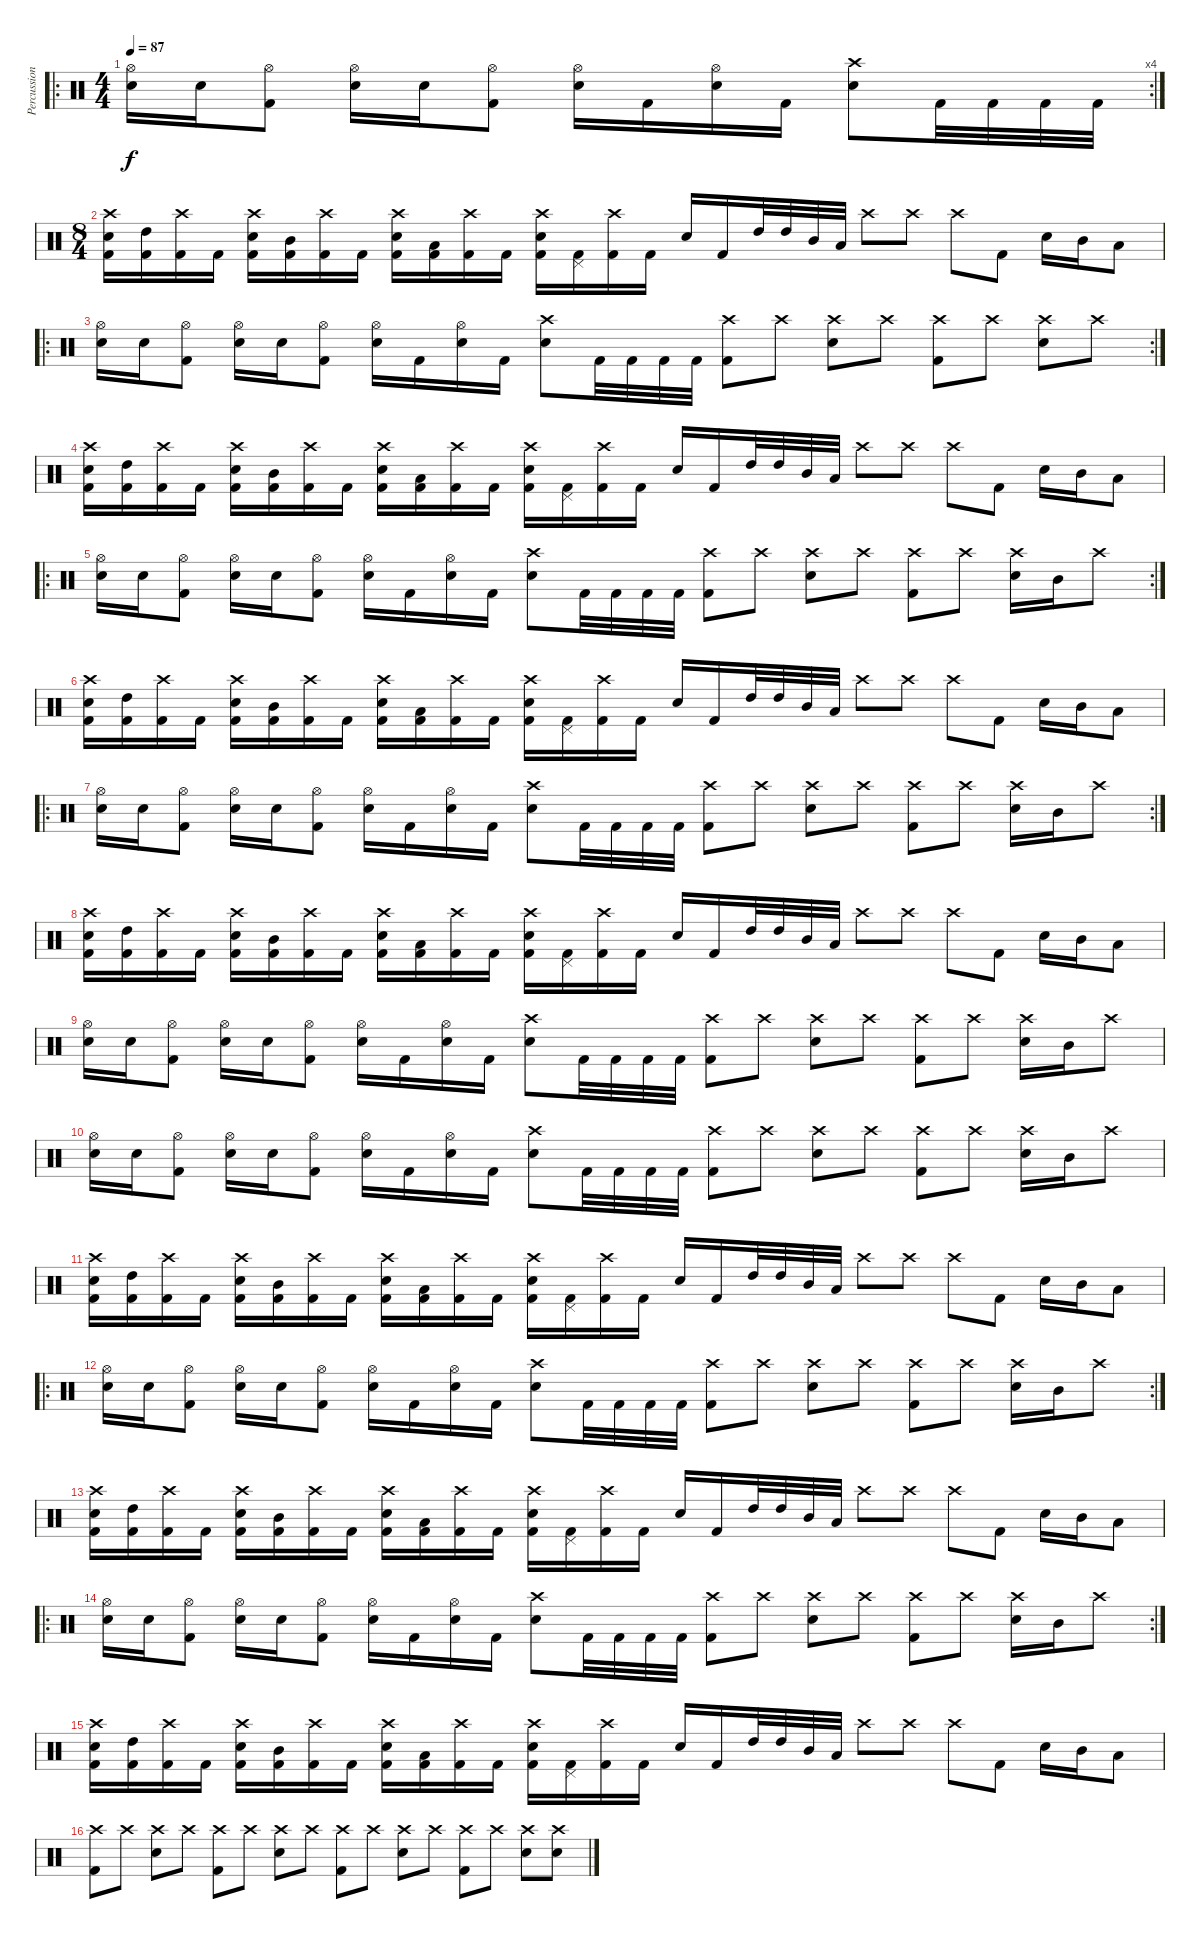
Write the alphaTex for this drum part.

\track ("Percussion" "Percussion") {instrument percussion}
\staff {score}
\articulation defaults
\ro
\rc 4
\ts (4 4)
\tempo 87
\clef neutral
\ks c
("Hi-Hat (open)" "Electric Snare (hit)").16{dy f} "Electric Snare (hit)".16 ("Hi-Hat (open)" "Kick (hit) 2").8 ("Hi-Hat (open)" "Electric Snare (hit)").16 "Electric Snare (hit)".16 ("Hi-Hat (open)" "Kick (hit) 2").8 ("Hi-Hat (open)" "Electric Snare (hit)").16 "Kick (hit) 2".16 ("Hi-Hat (open)" "Electric Snare (hit)").16 "Kick (hit) 2".16 ("Crash high (hit)" "Electric Snare (hit)").8 "Kick (hit) 2".32 "Kick (hit) 2".32 "Kick (hit) 2".32 "Kick (hit) 2".32 |
\ts (8 4)
("Crash high (hit)" "Electric Snare (hit)" "Kick (hit) 2").16 ("High Tom (hit)" "Kick (hit) 2").16 ("Crash high (hit)" "Kick (hit) 2").16 "Kick (hit) 2".16 ("Crash high (hit)" "Electric Snare (hit)" "Kick (hit) 2").16 ("Mid Tom (hit)" "Kick (hit) 2").16 ("Crash high (hit)" "Kick (hit) 2").16 "Kick (hit) 2".16 ("Crash high (hit)" "Electric Snare (hit)" "Kick (hit) 2").16 ("Low Tom (hit)" "Kick (hit) 2").16 ("Crash high (hit)" "Kick (hit) 2").16 "Kick (hit) 2".16 ("Crash high (hit)" "Electric Snare (hit)" "Kick (hit) 2").16 ("Pedal Hi-Hat (hit)" "Kick (hit) 2").16 ("Crash high (hit)" "Kick (hit) 2").16 "Kick (hit) 2".16 "Electric Snare (hit)".16 "Kick (hit) 2".16 "High Tom (hit)".32 "High Tom (hit)".32 "Mid Tom (hit)".32 "Low Tom (hit)".32 "Crash high (hit)".8 "Crash high (hit)".8 "Crash high (hit)".8 "Kick (hit) 2".8 "Electric Snare (hit)".16 "Mid Tom (hit)".16 "Low Tom (hit)".8 |
\ro
\rc 2
("Hi-Hat (open)" "Electric Snare (hit)").16 "Electric Snare (hit)".16 ("Hi-Hat (open)" "Kick (hit) 2").8 ("Hi-Hat (open)" "Electric Snare (hit)").16 "Electric Snare (hit)".16 ("Hi-Hat (open)" "Kick (hit) 2").8 ("Hi-Hat (open)" "Electric Snare (hit)").16 "Kick (hit) 2".16 ("Hi-Hat (open)" "Electric Snare (hit)").16 "Kick (hit) 2".16 ("Crash high (hit)" "Electric Snare (hit)").8 "Kick (hit) 2".32 "Kick (hit) 2".32 "Kick (hit) 2".32 "Kick (hit) 2".32 ("Crash high (hit)" "Kick (hit) 2").8 "Crash high (hit)".8 ("Crash high (hit)" "Electric Snare (hit)").8 "Crash high (hit)".8 ("Crash high (hit)" "Kick (hit) 2").8 "Crash high (hit)".8 ("Crash high (hit)" "Electric Snare (hit)").8 "Crash high (hit)".8 |
("Crash high (hit)" "Electric Snare (hit)" "Kick (hit) 2").16 ("High Tom (hit)" "Kick (hit) 2").16 ("Crash high (hit)" "Kick (hit) 2").16 "Kick (hit) 2".16 ("Crash high (hit)" "Electric Snare (hit)" "Kick (hit) 2").16 ("Mid Tom (hit)" "Kick (hit) 2").16 ("Crash high (hit)" "Kick (hit) 2").16 "Kick (hit) 2".16 ("Crash high (hit)" "Electric Snare (hit)" "Kick (hit) 2").16 ("Low Tom (hit)" "Kick (hit) 2").16 ("Crash high (hit)" "Kick (hit) 2").16 "Kick (hit) 2".16 ("Crash high (hit)" "Electric Snare (hit)" "Kick (hit) 2").16 ("Pedal Hi-Hat (hit)" "Kick (hit) 2").16 ("Crash high (hit)" "Kick (hit) 2").16 "Kick (hit) 2".16 "Electric Snare (hit)".16 "Kick (hit) 2".16 "High Tom (hit)".32 "High Tom (hit)".32 "Mid Tom (hit)".32 "Low Tom (hit)".32 "Crash high (hit)".8 "Crash high (hit)".8 "Crash high (hit)".8 "Kick (hit) 2".8 "Electric Snare (hit)".16 "Mid Tom (hit)".16 "Low Tom (hit)".8 |
\ro
\rc 2
("Hi-Hat (open)" "Electric Snare (hit)").16 "Electric Snare (hit)".16 ("Hi-Hat (open)" "Kick (hit) 2").8 ("Hi-Hat (open)" "Electric Snare (hit)").16 "Electric Snare (hit)".16 ("Hi-Hat (open)" "Kick (hit) 2").8 ("Hi-Hat (open)" "Electric Snare (hit)").16 "Kick (hit) 2".16 ("Hi-Hat (open)" "Electric Snare (hit)").16 "Kick (hit) 2".16 ("Crash high (hit)" "Electric Snare (hit)").8 "Kick (hit) 2".32 "Kick (hit) 2".32 "Kick (hit) 2".32 "Kick (hit) 2".32 ("Crash high (hit)" "Kick (hit) 2").8 "Crash high (hit)".8 ("Crash high (hit)" "Electric Snare (hit)").8 "Crash high (hit)".8 ("Crash high (hit)" "Kick (hit) 2").8 "Crash high (hit)".8 ("Crash high (hit)" "Electric Snare (hit)").16 "Mid Tom (hit)".16 "Crash high (hit)".8 |
("Crash high (hit)" "Electric Snare (hit)" "Kick (hit) 2").16 ("High Tom (hit)" "Kick (hit) 2").16 ("Crash high (hit)" "Kick (hit) 2").16 "Kick (hit) 2".16 ("Crash high (hit)" "Electric Snare (hit)" "Kick (hit) 2").16 ("Mid Tom (hit)" "Kick (hit) 2").16 ("Crash high (hit)" "Kick (hit) 2").16 "Kick (hit) 2".16 ("Crash high (hit)" "Electric Snare (hit)" "Kick (hit) 2").16 ("Low Tom (hit)" "Kick (hit) 2").16 ("Crash high (hit)" "Kick (hit) 2").16 "Kick (hit) 2".16 ("Crash high (hit)" "Electric Snare (hit)" "Kick (hit) 2").16 ("Pedal Hi-Hat (hit)" "Kick (hit) 2").16 ("Crash high (hit)" "Kick (hit) 2").16 "Kick (hit) 2".16 "Electric Snare (hit)".16 "Kick (hit) 2".16 "High Tom (hit)".32 "High Tom (hit)".32 "Mid Tom (hit)".32 "Low Tom (hit)".32 "Crash high (hit)".8 "Crash high (hit)".8 "Crash high (hit)".8 "Kick (hit) 2".8 "Electric Snare (hit)".16 "Mid Tom (hit)".16 "Low Tom (hit)".8 |
\ro
\rc 2
("Hi-Hat (open)" "Electric Snare (hit)").16 "Electric Snare (hit)".16 ("Hi-Hat (open)" "Kick (hit) 2").8 ("Hi-Hat (open)" "Electric Snare (hit)").16 "Electric Snare (hit)".16 ("Hi-Hat (open)" "Kick (hit) 2").8 ("Hi-Hat (open)" "Electric Snare (hit)").16 "Kick (hit) 2".16 ("Hi-Hat (open)" "Electric Snare (hit)").16 "Kick (hit) 2".16 ("Crash high (hit)" "Electric Snare (hit)").8 "Kick (hit) 2".32 "Kick (hit) 2".32 "Kick (hit) 2".32 "Kick (hit) 2".32 ("Crash high (hit)" "Kick (hit) 2").8 "Crash high (hit)".8 ("Crash high (hit)" "Electric Snare (hit)").8 "Crash high (hit)".8 ("Crash high (hit)" "Kick (hit) 2").8 "Crash high (hit)".8 ("Crash high (hit)" "Electric Snare (hit)").16 "Mid Tom (hit)".16 "Crash high (hit)".8 |
("Crash high (hit)" "Electric Snare (hit)" "Kick (hit) 2").16 ("High Tom (hit)" "Kick (hit) 2").16 ("Crash high (hit)" "Kick (hit) 2").16 "Kick (hit) 2".16 ("Crash high (hit)" "Electric Snare (hit)" "Kick (hit) 2").16 ("Mid Tom (hit)" "Kick (hit) 2").16 ("Crash high (hit)" "Kick (hit) 2").16 "Kick (hit) 2".16 ("Crash high (hit)" "Electric Snare (hit)" "Kick (hit) 2").16 ("Low Tom (hit)" "Kick (hit) 2").16 ("Crash high (hit)" "Kick (hit) 2").16 "Kick (hit) 2".16 ("Crash high (hit)" "Electric Snare (hit)" "Kick (hit) 2").16 ("Pedal Hi-Hat (hit)" "Kick (hit) 2").16 ("Crash high (hit)" "Kick (hit) 2").16 "Kick (hit) 2".16 "Electric Snare (hit)".16 "Kick (hit) 2".16 "High Tom (hit)".32 "High Tom (hit)".32 "Mid Tom (hit)".32 "Low Tom (hit)".32 "Crash high (hit)".8 "Crash high (hit)".8 "Crash high (hit)".8 "Kick (hit) 2".8 "Electric Snare (hit)".16 "Mid Tom (hit)".16 "Low Tom (hit)".8 |
("Hi-Hat (open)" "Electric Snare (hit)").16 "Electric Snare (hit)".16 ("Hi-Hat (open)" "Kick (hit) 2").8 ("Hi-Hat (open)" "Electric Snare (hit)").16 "Electric Snare (hit)".16 ("Hi-Hat (open)" "Kick (hit) 2").8 ("Hi-Hat (open)" "Electric Snare (hit)").16 "Kick (hit) 2".16 ("Hi-Hat (open)" "Electric Snare (hit)").16 "Kick (hit) 2".16 ("Crash high (hit)" "Electric Snare (hit)").8 "Kick (hit) 2".32 "Kick (hit) 2".32 "Kick (hit) 2".32 "Kick (hit) 2".32 ("Crash high (hit)" "Kick (hit) 2").8 "Crash high (hit)".8 ("Crash high (hit)" "Electric Snare (hit)").8 "Crash high (hit)".8 ("Crash high (hit)" "Kick (hit) 2").8 "Crash high (hit)".8 ("Crash high (hit)" "Electric Snare (hit)").16 "Mid Tom (hit)".16 "Crash high (hit)".8 |
("Hi-Hat (open)" "Electric Snare (hit)").16 "Electric Snare (hit)".16 ("Hi-Hat (open)" "Kick (hit) 2").8 ("Hi-Hat (open)" "Electric Snare (hit)").16 "Electric Snare (hit)".16 ("Hi-Hat (open)" "Kick (hit) 2").8 ("Hi-Hat (open)" "Electric Snare (hit)").16 "Kick (hit) 2".16 ("Hi-Hat (open)" "Electric Snare (hit)").16 "Kick (hit) 2".16 ("Crash high (hit)" "Electric Snare (hit)").8 "Kick (hit) 2".32 "Kick (hit) 2".32 "Kick (hit) 2".32 "Kick (hit) 2".32 ("Crash high (hit)" "Kick (hit) 2").8 "Crash high (hit)".8 ("Crash high (hit)" "Electric Snare (hit)").8 "Crash high (hit)".8 ("Crash high (hit)" "Kick (hit) 2").8 "Crash high (hit)".8 ("Crash high (hit)" "Electric Snare (hit)").16 "Mid Tom (hit)".16 "Crash high (hit)".8 |
("Crash high (hit)" "Electric Snare (hit)" "Kick (hit) 2").16 ("High Tom (hit)" "Kick (hit) 2").16 ("Crash high (hit)" "Kick (hit) 2").16 "Kick (hit) 2".16 ("Crash high (hit)" "Electric Snare (hit)" "Kick (hit) 2").16 ("Mid Tom (hit)" "Kick (hit) 2").16 ("Crash high (hit)" "Kick (hit) 2").16 "Kick (hit) 2".16 ("Crash high (hit)" "Electric Snare (hit)" "Kick (hit) 2").16 ("Low Tom (hit)" "Kick (hit) 2").16 ("Crash high (hit)" "Kick (hit) 2").16 "Kick (hit) 2".16 ("Crash high (hit)" "Electric Snare (hit)" "Kick (hit) 2").16 ("Pedal Hi-Hat (hit)" "Kick (hit) 2").16 ("Crash high (hit)" "Kick (hit) 2").16 "Kick (hit) 2".16 "Electric Snare (hit)".16 "Kick (hit) 2".16 "High Tom (hit)".32 "High Tom (hit)".32 "Mid Tom (hit)".32 "Low Tom (hit)".32 "Crash high (hit)".8 "Crash high (hit)".8 "Crash high (hit)".8 "Kick (hit) 2".8 "Electric Snare (hit)".16 "Mid Tom (hit)".16 "Low Tom (hit)".8 |
\ro
\rc 2
("Hi-Hat (open)" "Electric Snare (hit)").16 "Electric Snare (hit)".16 ("Hi-Hat (open)" "Kick (hit) 2").8 ("Hi-Hat (open)" "Electric Snare (hit)").16 "Electric Snare (hit)".16 ("Hi-Hat (open)" "Kick (hit) 2").8 ("Hi-Hat (open)" "Electric Snare (hit)").16 "Kick (hit) 2".16 ("Hi-Hat (open)" "Electric Snare (hit)").16 "Kick (hit) 2".16 ("Crash high (hit)" "Electric Snare (hit)").8 "Kick (hit) 2".32 "Kick (hit) 2".32 "Kick (hit) 2".32 "Kick (hit) 2".32 ("Crash high (hit)" "Kick (hit) 2").8 "Crash high (hit)".8 ("Crash high (hit)" "Electric Snare (hit)").8 "Crash high (hit)".8 ("Crash high (hit)" "Kick (hit) 2").8 "Crash high (hit)".8 ("Crash high (hit)" "Electric Snare (hit)").16 "Mid Tom (hit)".16 "Crash high (hit)".8 |
("Crash high (hit)" "Electric Snare (hit)" "Kick (hit) 2").16 ("High Tom (hit)" "Kick (hit) 2").16 ("Crash high (hit)" "Kick (hit) 2").16 "Kick (hit) 2".16 ("Crash high (hit)" "Electric Snare (hit)" "Kick (hit) 2").16 ("Mid Tom (hit)" "Kick (hit) 2").16 ("Crash high (hit)" "Kick (hit) 2").16 "Kick (hit) 2".16 ("Crash high (hit)" "Electric Snare (hit)" "Kick (hit) 2").16 ("Low Tom (hit)" "Kick (hit) 2").16 ("Crash high (hit)" "Kick (hit) 2").16 "Kick (hit) 2".16 ("Crash high (hit)" "Electric Snare (hit)" "Kick (hit) 2").16 ("Pedal Hi-Hat (hit)" "Kick (hit) 2").16 ("Crash high (hit)" "Kick (hit) 2").16 "Kick (hit) 2".16 "Electric Snare (hit)".16 "Kick (hit) 2".16 "High Tom (hit)".32 "High Tom (hit)".32 "Mid Tom (hit)".32 "Low Tom (hit)".32 "Crash high (hit)".8 "Crash high (hit)".8 "Crash high (hit)".8 "Kick (hit) 2".8 "Electric Snare (hit)".16 "Mid Tom (hit)".16 "Low Tom (hit)".8 |
\ro
\rc 2
("Hi-Hat (open)" "Electric Snare (hit)").16 "Electric Snare (hit)".16 ("Hi-Hat (open)" "Kick (hit) 2").8 ("Hi-Hat (open)" "Electric Snare (hit)").16 "Electric Snare (hit)".16 ("Hi-Hat (open)" "Kick (hit) 2").8 ("Hi-Hat (open)" "Electric Snare (hit)").16 "Kick (hit) 2".16 ("Hi-Hat (open)" "Electric Snare (hit)").16 "Kick (hit) 2".16 ("Crash high (hit)" "Electric Snare (hit)").8 "Kick (hit) 2".32 "Kick (hit) 2".32 "Kick (hit) 2".32 "Kick (hit) 2".32 ("Crash high (hit)" "Kick (hit) 2").8 "Crash high (hit)".8 ("Crash high (hit)" "Electric Snare (hit)").8 "Crash high (hit)".8 ("Crash high (hit)" "Kick (hit) 2").8 "Crash high (hit)".8 ("Crash high (hit)" "Electric Snare (hit)").16 "Mid Tom (hit)".16 "Crash high (hit)".8 |
("Crash high (hit)" "Electric Snare (hit)" "Kick (hit) 2").16 ("High Tom (hit)" "Kick (hit) 2").16 ("Crash high (hit)" "Kick (hit) 2").16 "Kick (hit) 2".16 ("Crash high (hit)" "Electric Snare (hit)" "Kick (hit) 2").16 ("Mid Tom (hit)" "Kick (hit) 2").16 ("Crash high (hit)" "Kick (hit) 2").16 "Kick (hit) 2".16 ("Crash high (hit)" "Electric Snare (hit)" "Kick (hit) 2").16 ("Low Tom (hit)" "Kick (hit) 2").16 ("Crash high (hit)" "Kick (hit) 2").16 "Kick (hit) 2".16 ("Crash high (hit)" "Electric Snare (hit)" "Kick (hit) 2").16 ("Pedal Hi-Hat (hit)" "Kick (hit) 2").16 ("Crash high (hit)" "Kick (hit) 2").16 "Kick (hit) 2".16 "Electric Snare (hit)".16 "Kick (hit) 2".16 "High Tom (hit)".32 "High Tom (hit)".32 "Mid Tom (hit)".32 "Low Tom (hit)".32 "Crash high (hit)".8 "Crash high (hit)".8 "Crash high (hit)".8 "Kick (hit) 2".8 "Electric Snare (hit)".16 "Mid Tom (hit)".16 "Low Tom (hit)".8 |
("Crash high (hit)" "Kick (hit) 2").8 "Crash high (hit)".8 ("Crash high (hit)" "Electric Snare (hit)").8 "Crash high (hit)".8 ("Crash high (hit)" "Kick (hit) 2").8 "Crash high (hit)".8 ("Crash high (hit)" "Electric Snare (hit)").8 "Crash high (hit)".8 ("Crash high (hit)" "Kick (hit) 2").8 "Crash high (hit)".8 ("Crash high (hit)" "Electric Snare (hit)").8 "Crash high (hit)".8 ("Crash high (hit)" "Kick (hit) 2").8 "Crash high (hit)".8 ("Crash high (hit)" "Electric Snare (hit)").8 ("Crash high (hit)" "Electric Snare (hit)").8
